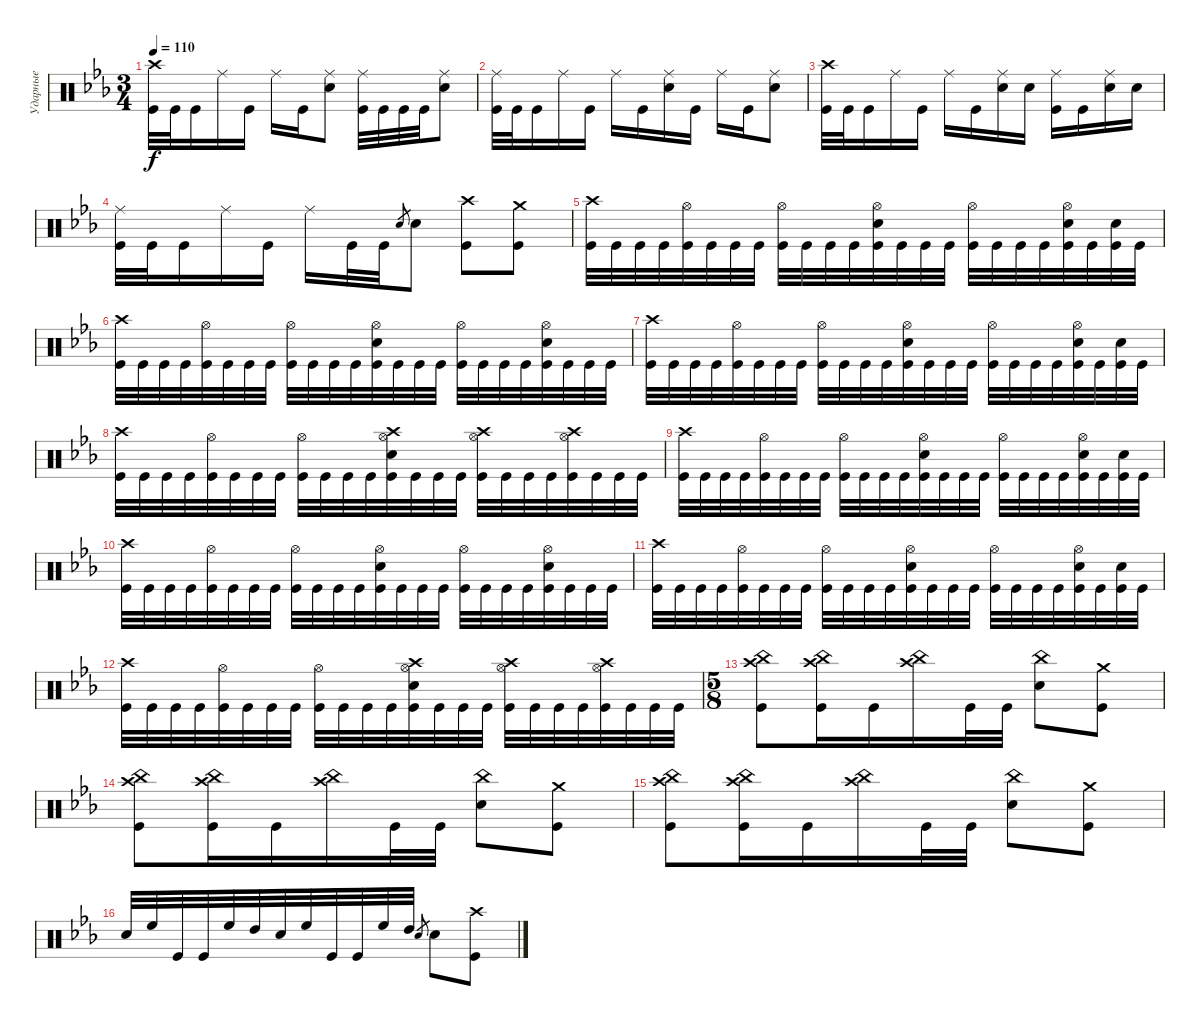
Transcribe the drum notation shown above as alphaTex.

\track ("Ударные" "Ударные") {instrument percussion}
\staff {score}
\articulation defaults
\ts (3 4)
\tempo 110
\clef neutral
\ks cminor
("Kick (hit)" "Crash high (hit)").32{dy f} "Kick (hit)".32 "Kick (hit)".16 "Ride (middle)".16 "Kick (hit)".16 "Ride (middle)".16 "Kick (hit)".16 ("Snare (hit) 2" "Ride (middle)").8 ("Ride (middle)" "Kick (hit)").32 "Kick (hit)".32 "Kick (hit)".32 "Kick (hit)".32 ("Ride (middle)" "Snare (hit) 2").8 |
("Kick (hit)" "Ride (middle)").32 "Kick (hit)".32 "Kick (hit)".16 "Ride (middle)".16 "Kick (hit)".16 "Ride (middle)".16 "Kick (hit)".16 ("Snare (hit) 2" "Ride (middle)").16 "Kick (hit)".16 "Ride (middle)".16 "Kick (hit)".16 ("Snare (hit) 2" "Ride (middle)").8 |
("Kick (hit)" "Crash high (hit)").32 "Kick (hit)".32 "Kick (hit)".16 "Ride (middle)".16 "Kick (hit)".16 "Ride (middle)".16 "Kick (hit)".16 ("Snare (hit) 2" "Ride (middle)").16 "Snare (hit) 2".16 ("Kick (hit)" "Ride (middle)").16 "Kick (hit)".16 ("Snare (hit) 2" "Ride (middle)").16 "Snare (hit) 2".16 |
("Kick (hit)" "Ride (middle)").32 "Kick (hit)".32 "Kick (hit)".16 "Ride (middle)".16 "Kick (hit)".16 "Ride (middle)".16 "Kick (hit)".32 "Kick (hit)".32 "Snare (hit) 2".8{gr} "Snare (hit) 2".8 ("Kick (hit)" "Crash high (hit)").8 ("Kick (hit)" "Crash medium (hit)").8 |
("Kick (hit)" "Crash high (hit)").32 "Kick (hit)".32 "Kick (hit)".32 "Kick (hit)".32 ("Kick (hit)" "Hi-Hat (open)").32 "Kick (hit)".32 "Kick (hit)".32 "Kick (hit)".32 ("Kick (hit)" "Hi-Hat (open)").32 "Kick (hit)".32 "Kick (hit)".32 "Kick (hit)".32 ("Kick (hit)" "Hi-Hat (open)" "Snare (hit) 2").32 "Kick (hit)".32 "Kick (hit)".32 "Kick (hit)".32 ("Kick (hit)" "Hi-Hat (open)").32 "Kick (hit)".32 "Kick (hit)".32 "Kick (hit)".32 ("Kick (hit)" "Hi-Hat (open)" "Snare (hit) 2").32 "Kick (hit)".32 ("Kick (hit)" "Snare (hit) 2").32 "Kick (hit)".32 |
("Kick (hit)" "Crash high (hit)").32 "Kick (hit)".32 "Kick (hit)".32 "Kick (hit)".32 ("Kick (hit)" "Hi-Hat (open)").32 "Kick (hit)".32 "Kick (hit)".32 "Kick (hit)".32 ("Kick (hit)" "Hi-Hat (open)").32 "Kick (hit)".32 "Kick (hit)".32 "Kick (hit)".32 ("Kick (hit)" "Hi-Hat (open)" "Snare (hit) 2").32 "Kick (hit)".32 "Kick (hit)".32 "Kick (hit)".32 ("Kick (hit)" "Hi-Hat (open)").32 "Kick (hit)".32 "Kick (hit)".32 "Kick (hit)".32 ("Kick (hit)" "Hi-Hat (open)" "Snare (hit) 2").32 "Kick (hit)".32 "Kick (hit)".32 "Kick (hit)".32 |
("Kick (hit)" "Crash high (hit)").32 "Kick (hit)".32 "Kick (hit)".32 "Kick (hit)".32 ("Kick (hit)" "Hi-Hat (open)").32 "Kick (hit)".32 "Kick (hit)".32 "Kick (hit)".32 ("Kick (hit)" "Hi-Hat (open)").32 "Kick (hit)".32 "Kick (hit)".32 "Kick (hit)".32 ("Kick (hit)" "Hi-Hat (open)" "Snare (hit) 2").32 "Kick (hit)".32 "Kick (hit)".32 "Kick (hit)".32 ("Kick (hit)" "Hi-Hat (open)").32 "Kick (hit)".32 "Kick (hit)".32 "Kick (hit)".32 ("Kick (hit)" "Hi-Hat (open)" "Snare (hit) 2").32 "Kick (hit)".32 ("Kick (hit)" "Snare (hit) 2").32 "Kick (hit)".32 |
("Kick (hit)" "Crash high (hit)").32 "Kick (hit)".32 "Kick (hit)".32 "Kick (hit)".32 ("Kick (hit)" "Hi-Hat (open)").32 "Kick (hit)".32 "Kick (hit)".32 "Kick (hit)".32 ("Kick (hit)" "Hi-Hat (open)").32 "Kick (hit)".32 "Kick (hit)".32 "Kick (hit)".32 ("Kick (hit)" "Hi-Hat (open)" "Snare (hit) 2" "Crash high (hit)").32 "Kick (hit)".32 "Kick (hit)".32 "Kick (hit)".32 ("Kick (hit)" "Hi-Hat (open)" "Crash high (hit)").32 "Kick (hit)".32 "Kick (hit)".32 "Kick (hit)".32 ("Kick (hit)" "Hi-Hat (open)" "Crash high (hit)").32 "Kick (hit)".32 "Kick (hit)".32 "Kick (hit)".32 |
("Kick (hit)" "Crash high (hit)").32 "Kick (hit)".32 "Kick (hit)".32 "Kick (hit)".32 ("Kick (hit)" "Hi-Hat (open)").32 "Kick (hit)".32 "Kick (hit)".32 "Kick (hit)".32 ("Kick (hit)" "Hi-Hat (open)").32 "Kick (hit)".32 "Kick (hit)".32 "Kick (hit)".32 ("Kick (hit)" "Hi-Hat (open)" "Snare (hit) 2").32 "Kick (hit)".32 "Kick (hit)".32 "Kick (hit)".32 ("Kick (hit)" "Hi-Hat (open)").32 "Kick (hit)".32 "Kick (hit)".32 "Kick (hit)".32 ("Kick (hit)" "Hi-Hat (open)" "Snare (hit) 2").32 "Kick (hit)".32 ("Kick (hit)" "Snare (hit) 2").32 "Kick (hit)".32 |
("Kick (hit)" "Crash high (hit)").32 "Kick (hit)".32 "Kick (hit)".32 "Kick (hit)".32 ("Kick (hit)" "Hi-Hat (open)").32 "Kick (hit)".32 "Kick (hit)".32 "Kick (hit)".32 ("Kick (hit)" "Hi-Hat (open)").32 "Kick (hit)".32 "Kick (hit)".32 "Kick (hit)".32 ("Kick (hit)" "Hi-Hat (open)" "Snare (hit) 2").32 "Kick (hit)".32 "Kick (hit)".32 "Kick (hit)".32 ("Kick (hit)" "Hi-Hat (open)").32 "Kick (hit)".32 "Kick (hit)".32 "Kick (hit)".32 ("Kick (hit)" "Hi-Hat (open)" "Snare (hit) 2").32 "Kick (hit)".32 "Kick (hit)".32 "Kick (hit)".32 |
("Kick (hit)" "Crash high (hit)").32 "Kick (hit)".32 "Kick (hit)".32 "Kick (hit)".32 ("Kick (hit)" "Hi-Hat (open)").32 "Kick (hit)".32 "Kick (hit)".32 "Kick (hit)".32 ("Kick (hit)" "Hi-Hat (open)").32 "Kick (hit)".32 "Kick (hit)".32 "Kick (hit)".32 ("Kick (hit)" "Hi-Hat (open)" "Snare (hit) 2").32 "Kick (hit)".32 "Kick (hit)".32 "Kick (hit)".32 ("Kick (hit)" "Hi-Hat (open)").32 "Kick (hit)".32 "Kick (hit)".32 "Kick (hit)".32 ("Kick (hit)" "Hi-Hat (open)" "Snare (hit) 2").32 "Kick (hit)".32 ("Kick (hit)" "Snare (hit) 2").32 "Kick (hit)".32 |
("Kick (hit)" "Crash high (hit)").32 "Kick (hit)".32 "Kick (hit)".32 "Kick (hit)".32 ("Kick (hit)" "Hi-Hat (open)").32 "Kick (hit)".32 "Kick (hit)".32 "Kick (hit)".32 ("Kick (hit)" "Hi-Hat (open)").32 "Kick (hit)".32 "Kick (hit)".32 "Kick (hit)".32 ("Kick (hit)" "Hi-Hat (open)" "Snare (hit) 2" "Crash high (hit)").32 "Kick (hit)".32 "Kick (hit)".32 "Kick (hit)".32 ("Kick (hit)" "Hi-Hat (open)" "Crash high (hit)").32 "Kick (hit)".32 "Kick (hit)".32 "Kick (hit)".32 ("Kick (hit)" "Hi-Hat (open)" "Crash high (hit)").32 "Kick (hit)".32 "Kick (hit)".32 "Kick (hit)".32 |
\ts (5 8)
("Kick (hit)" "Crash high (hit)" "China (hit)").8 ("Kick (hit)" "Crash high (hit)" "China (hit)").16 "Kick (hit)".16 ("Crash high (hit)" "China (hit)").16 "Kick (hit)".32 "Kick (hit)".32 ("Snare (hit) 2" "China (hit)").8 ("Kick (hit)" "Crash medium (hit)").8 |
("Kick (hit)" "Crash high (hit)" "China (hit)").8 ("Kick (hit)" "Crash high (hit)" "China (hit)").16 "Kick (hit)".16 ("Crash high (hit)" "China (hit)").16 "Kick (hit)".32 "Kick (hit)".32 ("Snare (hit) 2" "China (hit)").8 ("Kick (hit)" "Crash medium (hit)").8 |
("Kick (hit)" "Crash high (hit)" "China (hit)").8 ("Kick (hit)" "Crash high (hit)" "China (hit)").16 "Kick (hit)".16 ("Crash high (hit)" "China (hit)").16 "Kick (hit)".32 "Kick (hit)".32 ("Snare (hit) 2" "China (hit)").8 ("Kick (hit)" "Crash medium (hit)").8 |
"Snare (hit) 2".32 "High Floor Tom (hit)".32 "Kick (hit)".32 "Kick (hit)".32 "High Floor Tom (hit)".32 "High Tom (hit)".32 "Snare (hit) 2".32 "High Floor Tom (hit)".32 "Kick (hit)".32 "Kick (hit)".32 "High Floor Tom (hit)".32 "High Tom (hit)".32 "Snare (hit) 2".8{gr} "Snare (hit) 2".8 ("Kick (hit)" "Crash high (hit)").8
